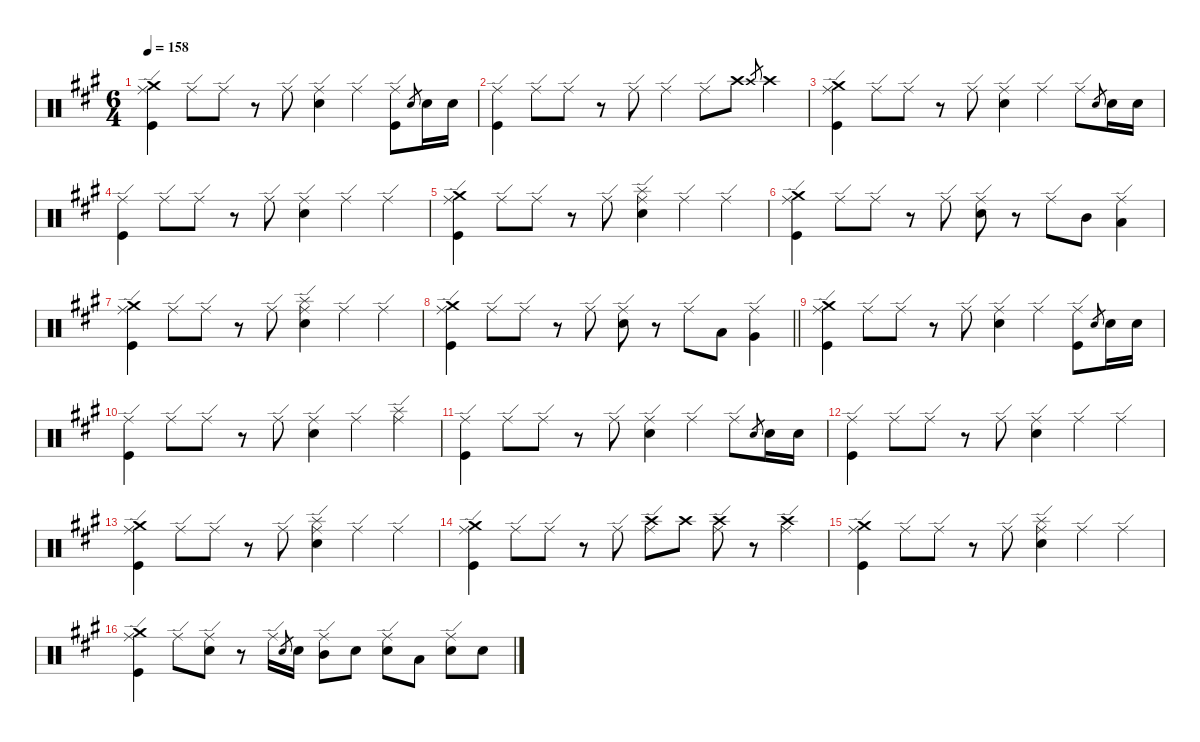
\defaultSystemsLayout 4
\hideDynamics
\bracketExtendMode nobrackets
\singleTrackTrackNamePolicy hidden
\multiTrackTrackNamePolicy hidden
\firstSystemTrackNameMode fullname
\firstSystemTrackNameOrientation horizontal
\otherSystemsTrackNameOrientation horizontal
\track ("Drums" "drm.") {instrument percussion}
\staff {score}
\articulation defaults
\ts (6 4)
\tempo 158
\clef neutral
\ks f#minor
("Crash medium (hit)"{acc forcenatural} "Ride (edge)"{acc forcenatural} "Kick (hit)"{acc forcenatural}).4{dy f beam Down} "Ride (edge)"{acc forcenatural}.8{dy p beam Down} "Ride (edge)"{acc forcenatural}.8{beam Down} r.8{beam Down} "Ride (edge)"{acc forcenatural}.8{beam Down} ("Ride (edge)"{acc forcenatural} "Snare (hit) 2"{acc forcenatural}).4{dy f beam Down} "Ride (edge)"{acc forcenatural}.4{dy mf beam Down} ("Ride (edge)"{acc forcenatural} "Kick (hit)"{acc forcenatural}).8{dy f beam Down} "Electric Snare (hit)"{acc forcenatural}.8{gr dy ppp beam Up} "Snare (hit) 2"{acc forcenatural}.16{dy p beam Down} "Snare (hit) 2"{acc forcenatural}.16{beam Down} |
("Ride (edge)"{acc forcenatural} "Kick (hit)"{acc forcenatural}).4{dy f beam Down} "Ride (edge)"{acc forcenatural}.8{dy mf beam Down} "Ride (edge)"{acc forcenatural}.8{beam Down} r.8{beam Down} "Ride (edge)"{acc forcenatural}.8{dy mp beam Down} "Ride (edge)"{acc forcenatural}.4{dy p beam Down} "Ride (edge)"{acc forcenatural}.8{beam Down} "Crash high (hit)"{acc forcenatural}.8{beam Down} "Crash high (hit)"{acc forcenatural}.8{gr dy pp beam Up} "Crash high (hit)"{acc forcenatural}.4{dy mp beam Down} |
("Crash medium (hit)"{acc forcenatural} "Ride (edge)"{acc forcenatural} "Kick (hit)"{acc forcenatural}).4{dy f beam Down} "Ride (edge)"{acc forcenatural}.8{dy p beam Down} "Ride (edge)"{acc forcenatural}.8{beam Down} r.8{beam Down} "Ride (edge)"{acc forcenatural}.8{beam Down} ("Ride (edge)"{acc forcenatural} "Snare (hit) 2"{acc forcenatural}).4{dy f beam Down} "Ride (edge)"{acc forcenatural}.4{dy mf beam Down} "Ride (edge)"{acc forcenatural}.8{dy p beam Down} "Electric Snare (hit)"{acc forcenatural}.8{gr dy ppp beam Up} "Snare (hit) 2"{acc forcenatural}.16{dy p beam Down} "Snare (hit) 2"{acc forcenatural}.16{beam Down} |
("Ride (edge)"{acc forcenatural} "Kick (hit)"{acc forcenatural}).4{dy f beam Down} "Ride (edge)"{acc forcenatural}.8{dy mf beam Down} "Ride (edge)"{acc forcenatural}.8{dy mp beam Down} r.8{beam Down} "Ride (edge)"{acc forcenatural}.8{dy p beam Down} ("Ride (edge)"{acc forcenatural} "Snare (hit) 2"{acc forcenatural}).4{dy f beam Down} "Ride (edge)"{acc forcenatural}.4{dy mf beam Down} "Ride (edge)"{acc forcenatural}.4{dy p beam Down} |
("Crash medium (hit)"{acc forcenatural} "Ride (edge)"{acc forcenatural} "Kick (hit)"{acc forcenatural}).4{dy f beam Down} "Ride (edge)"{acc forcenatural}.8{dy p beam Down} "Ride (edge)"{acc forcenatural}.8{beam Down} r.8{beam Down} "Ride (edge)"{acc forcenatural}.8{beam Down} ("Splash (hit)"{acc forcenatural} "Ride (edge)"{acc forcenatural} "Snare (hit) 2"{acc forcenatural}).4{dy mf beam Down} "Ride (edge)"{acc forcenatural}.4{beam Down} "Ride (edge)"{acc forcenatural}.4{dy p beam Down} |
("Crash medium (hit)"{acc forcenatural} "Ride (edge)"{acc forcenatural} "Kick (hit)"{acc forcenatural}).4{dy f beam Down} "Ride (edge)"{acc forcenatural}.8{dy mf beam Down} "Ride (edge)"{acc forcenatural}.8{dy mp beam Down} r.8{beam Down} "Ride (edge)"{acc forcenatural}.8{dy p beam Down} ("Ride (edge)"{acc forcenatural} "Snare (hit) 2"{acc forcenatural}).8{dy f beam Down} r.8{beam Down} "Ride (edge)"{acc forcenatural}.8{dy mf beam Down} "Mid Tom (hit)"{acc forcenatural}.8{dy f beam Down} ("Ride (edge)"{acc forcenatural} "Low Tom (hit)"{acc forcenatural}).4{beam Down} |
("Crash medium (hit)"{acc forcenatural} "Ride (edge)"{acc forcenatural} "Kick (hit)"{acc forcenatural}).4{beam Down} "Ride (edge)"{acc forcenatural}.8{dy mf beam Down} "Ride (edge)"{acc forcenatural}.8{dy mp beam Down} r.8{beam Down} "Ride (edge)"{acc forcenatural}.8{dy p beam Down} ("Splash (hit)"{acc forcenatural} "Ride (edge)"{acc forcenatural} "Snare (hit) 2"{acc forcenatural}).4{dy mf beam Down} "Ride (edge)"{acc forcenatural}.4{beam Down} "Ride (edge)"{acc forcenatural}.4{dy p beam Down} |
\barLineRight lightlight
("Crash medium (hit)"{acc forcenatural} "Ride (edge)"{acc forcenatural} "Kick (hit)"{acc forcenatural}).4{dy f beam Down} "Ride (edge)"{acc forcenatural}.8{dy mf beam Down} "Ride (edge)"{acc forcenatural}.8{dy mp beam Down} r.8{beam Down} "Ride (edge)"{acc forcenatural}.8{dy p beam Down} ("Ride (edge)"{acc forcenatural} "Snare (hit) 2"{acc forcenatural}).8{dy f beam Down} r.8{beam Down} "Ride (edge)"{acc forcenatural}.8{dy p beam Down} "Low Tom (hit)"{acc forcenatural}.8{dy f beam Up} ("Ride (edge)"{acc forcenatural} "Very Low Tom (hit)"{acc forcenatural}).4{beam Down} |
("Crash medium (hit)"{acc forcenatural} "Ride (edge)"{acc forcenatural} "Kick (hit)"{acc forcenatural}).4{beam Down} "Ride (edge)"{acc forcenatural}.8{dy p beam Down} "Ride (edge)"{acc forcenatural}.8{beam Down} r.8{beam Down} "Ride (edge)"{acc forcenatural}.8{beam Down} ("Ride (edge)"{acc forcenatural} "Snare (hit) 2"{acc forcenatural}).4{dy f beam Down} "Ride (edge)"{acc forcenatural}.4{dy p beam Down} ("Ride (edge)"{acc forcenatural} "Kick (hit)"{acc forcenatural}).8{dy f beam Down} "Electric Snare (hit)"{acc forcenatural}.8{gr dy ppp beam Up} "Snare (hit) 2"{acc forcenatural}.16{dy p beam Down} "Snare (hit) 2"{acc forcenatural}.16{beam Down} |
("Ride (edge)"{acc forcenatural} "Kick (hit)"{acc forcenatural}).4{dy f beam Down} "Ride (edge)"{acc forcenatural}.8{dy p beam Down} "Ride (edge)"{acc forcenatural}.8{beam Down} r.8{beam Down} "Ride (edge)"{acc forcenatural}.8{beam Down} ("Ride (edge)"{acc forcenatural} "Snare (hit) 2"{acc forcenatural}).4{dy f beam Down} "Ride (edge)"{acc forcenatural}.4{dy p beam Down} ("Splash (hit)"{acc forcenatural} "Ride (edge)"{acc forcenatural}).4{dy mf beam Down} |
("Ride (edge)"{acc forcenatural} "Kick (hit)"{acc forcenatural}).4{dy f beam Down} "Ride (edge)"{acc forcenatural}.8{dy p beam Down} "Ride (edge)"{acc forcenatural}.8{beam Down} r.8{beam Down} "Ride (edge)"{acc forcenatural}.8{beam Down} ("Ride (edge)"{acc forcenatural} "Snare (hit) 2"{acc forcenatural}).4{dy f beam Down} "Ride (edge)"{acc forcenatural}.4{dy p beam Down} "Ride (edge)"{acc forcenatural}.8{beam Down} "Electric Snare (hit)"{acc forcenatural}.8{gr dy ppp beam Up} "Snare (hit) 2"{acc forcenatural}.16{dy p beam Down} "Snare (hit) 2"{acc forcenatural}.16{beam Down} |
("Ride (edge)"{acc forcenatural} "Kick (hit)"{acc forcenatural}).4{dy f beam Down} "Ride (edge)"{acc forcenatural}.8{dy p beam Down} "Ride (edge)"{acc forcenatural}.8{beam Down} r.8{beam Down} "Ride (edge)"{acc forcenatural}.8{beam Down} ("Ride (edge)"{acc forcenatural} "Snare (hit) 2"{acc forcenatural}).4{dy f beam Down} "Ride (edge)"{acc forcenatural}.4{dy p beam Down} "Ride (edge)"{acc forcenatural}.4{beam Down} |
("Crash medium (hit)"{acc forcenatural} "Ride (edge)"{acc forcenatural} "Kick (hit)"{acc forcenatural}).4{dy f beam Down} "Ride (edge)"{acc forcenatural}.8{dy mf beam Down} "Ride (edge)"{acc forcenatural}.8{dy mp beam Down} r.8{beam Down} "Ride (edge)"{acc forcenatural}.8{dy p beam Down} ("Splash (hit)"{acc forcenatural} "Ride (edge)"{acc forcenatural} "Snare (hit) 2"{acc forcenatural}).4{dy mf beam Down} "Ride (edge)"{acc forcenatural}.4{beam Down} "Ride (edge)"{acc forcenatural}.4{dy mp beam Down} |
("Crash medium (hit)"{acc forcenatural} "Ride (edge)"{acc forcenatural} "Kick (hit)"{acc forcenatural}).4{dy f beam Down} "Ride (edge)"{acc forcenatural}.8{dy mf beam Down} "Ride (edge)"{acc forcenatural}.8{dy mp beam Down} r.8{beam Down} "Ride (edge)"{acc forcenatural}.8{dy p beam Down} ("Crash high (hit)"{acc forcenatural} "Ride (edge)"{acc forcenatural}).8{dy mp beam Down} "Crash high (hit)"{acc forcenatural}.8{dy mf beam Down} ("Crash high (hit)"{acc forcenatural} "Ride (edge)"{acc forcenatural}).8{dy mp beam Down} r.8{beam Down} ("Crash high (hit)"{acc forcenatural} "Ride (edge)"{acc forcenatural}).4{dy mf beam Down} |
("Crash medium (hit)"{acc forcenatural} "Ride (edge)"{acc forcenatural} "Kick (hit)"{acc forcenatural}).4{dy f beam Down} "Ride (edge)"{acc forcenatural}.8{dy p beam Down} "Ride (edge)"{acc forcenatural}.8{beam Down} r.8{beam Down} "Ride (edge)"{acc forcenatural}.8{beam Down} ("Splash (hit)"{acc forcenatural} "Ride (edge)"{acc forcenatural} "Snare (hit) 2"{acc forcenatural}).4{dy mf beam Down} "Ride (edge)"{acc forcenatural}.4{beam Down} "Ride (edge)"{acc forcenatural}.4{dy mp beam Down} |
("Crash medium (hit)"{acc forcenatural} "Ride (edge)"{acc forcenatural} "Kick (hit)"{acc forcenatural}).4{dy f beam Down} "Ride (edge)"{acc forcenatural}.8{dy p beam Down} ("Ride (edge)"{acc forcenatural} "Snare (hit) 2"{acc forcenatural}).8{dy f beam Down} r.8{beam Down} "Ride (edge)"{acc forcenatural}.16{dy p beam Down} "Electric Snare (hit)"{acc forcenatural}.8{gr dy pp beam Up} "Snare (hit) 2"{acc forcenatural}.16{dy mp beam Down} ("Ride (edge)"{acc forcenatural} "Mid Tom (hit)"{acc forcenatural}).8{dy f beam Down} "Snare (hit) 2"{acc forcenatural}.8{dy p beam Down} ("Ride (edge)"{acc forcenatural} "Snare (hit) 2"{acc forcenatural}).8{dy f beam Down} "Low Tom (hit)"{acc forcenatural}.8{beam Down} ("Ride (edge)"{acc forcenatural} "Snare (hit) 2"{acc forcenatural}).8{beam Down} "Snare (hit) 2"{acc forcenatural}.8{dy p beam Down}
